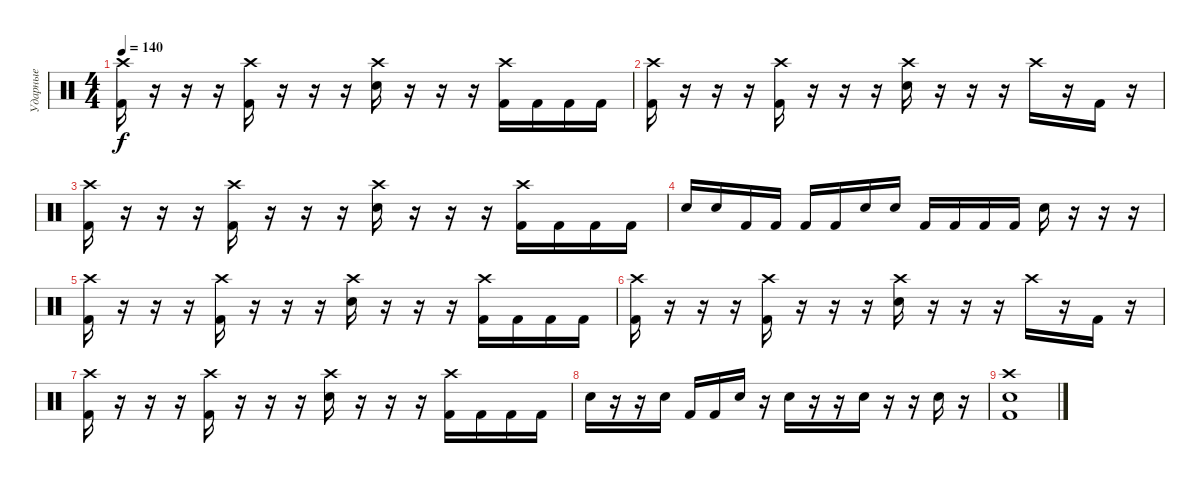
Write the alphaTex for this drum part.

\track ("Ударные" "Ударные") {instrument percussion}
\staff {score}
\articulation defaults
\ts (4 4)
\tempo 140
\clef neutral
\ks c
("Crash high (hit)" "Kick (hit) 2").16{dy f} r.16 r.16 r.16 ("Crash high (hit)" "Kick (hit) 2").16 r.16 r.16 r.16 ("Crash high (hit)" "Electric Snare (hit)").16 r.16 r.16 r.16 ("Crash high (hit)" "Kick (hit) 2").16 "Kick (hit) 2".16 "Kick (hit) 2".16 "Kick (hit) 2".16 |
("Crash high (hit)" "Kick (hit) 2").16 r.16 r.16 r.16 ("Crash high (hit)" "Kick (hit) 2").16 r.16 r.16 r.16 ("Crash high (hit)" "Electric Snare (hit)").16 r.16 r.16 r.16 "Crash high (hit)".16 r.16 "Kick (hit) 2".16 r.16 |
("Crash high (hit)" "Kick (hit) 2").16 r.16 r.16 r.16 ("Crash high (hit)" "Kick (hit) 2").16 r.16 r.16 r.16 ("Crash high (hit)" "Electric Snare (hit)").16 r.16 r.16 r.16 ("Crash high (hit)" "Kick (hit) 2").16 "Kick (hit) 2".16 "Kick (hit) 2".16 "Kick (hit) 2".16 |
"Electric Snare (hit)".16 "Electric Snare (hit)".16 "Kick (hit) 2".16 "Kick (hit) 2".16 "Kick (hit) 2".16 "Kick (hit) 2".16 "Electric Snare (hit)".16 "Electric Snare (hit)".16 "Kick (hit) 2".16 "Kick (hit) 2".16 "Kick (hit) 2".16 "Kick (hit) 2".16 "Electric Snare (hit)".16 r.16 r.16 r.16 |
("Crash high (hit)" "Kick (hit) 2").16 r.16 r.16 r.16 ("Crash high (hit)" "Kick (hit) 2").16 r.16 r.16 r.16 ("Crash high (hit)" "Electric Snare (hit)").16 r.16 r.16 r.16 ("Crash high (hit)" "Kick (hit) 2").16 "Kick (hit) 2".16 "Kick (hit) 2".16 "Kick (hit) 2".16 |
("Crash high (hit)" "Kick (hit) 2").16 r.16 r.16 r.16 ("Crash high (hit)" "Kick (hit) 2").16 r.16 r.16 r.16 ("Crash high (hit)" "Electric Snare (hit)").16 r.16 r.16 r.16 "Crash high (hit)".16 r.16 "Kick (hit) 2".16 r.16 |
("Crash high (hit)" "Kick (hit) 2").16 r.16 r.16 r.16 ("Crash high (hit)" "Kick (hit) 2").16 r.16 r.16 r.16 ("Crash high (hit)" "Electric Snare (hit)").16 r.16 r.16 r.16 ("Crash high (hit)" "Kick (hit) 2").16 "Kick (hit) 2".16 "Kick (hit) 2".16 "Kick (hit) 2".16 |
"Electric Snare (hit)".16 r.16 r.16 "Electric Snare (hit)".16 "Kick (hit) 2".16 "Kick (hit) 2".16 "Electric Snare (hit)".16 r.16 "Electric Snare (hit)".16 r.16 r.16 "Electric Snare (hit)".16 r.16 r.16 "Electric Snare (hit)".16 r.16 |
("Crash high (hit)" "Electric Snare (hit)" "Kick (hit) 2").1
